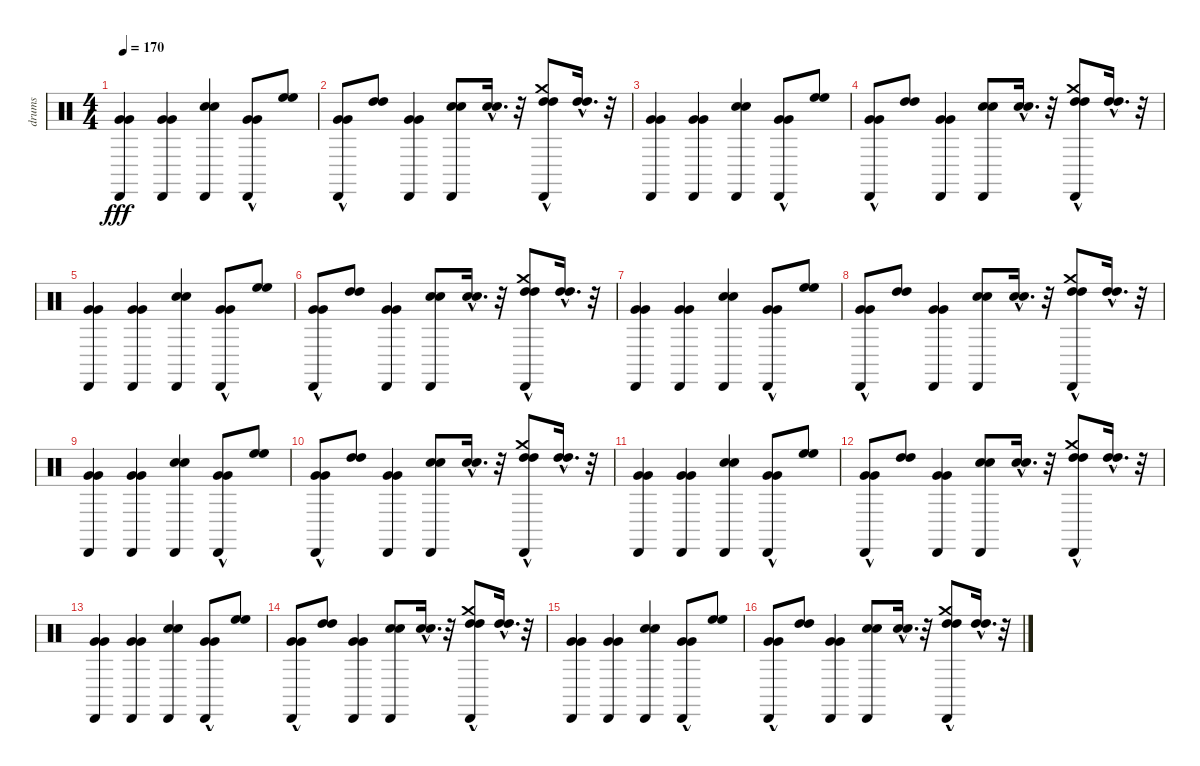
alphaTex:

\track ("drums" "drums") {instrument percussion}
\staff {score}
\articulation defaults
\ts (4 4)
\tempo 170
\clef neutral
\ks c
("Very Low Tom (hit)" "Very Low Tom (hit)" "Cabasa (hit)").4{dy fff} ("Very Low Tom (hit)" "Very Low Tom (hit)" "Cabasa (hit)").4 ("Electric Snare (hit)" "Electric Snare (hit)" "Cabasa (hit)").4 ("Very Low Tom (hit)"{hac} "Very Low Tom (hit)"{hac} "Cabasa (hit)").8 ("High Floor Tom (hit)" "High Floor Tom (hit)").8 |
("Very Low Tom (hit)"{hac} "Very Low Tom (hit)"{hac} "Cabasa (hit)").8 ("High Tom (hit)" "High Tom (hit)").8 ("Very Low Tom (hit)" "Very Low Tom (hit)" "Cabasa (hit)").4 ("Electric Snare (hit)" "Electric Snare (hit)" "Cabasa (hit)").8 ("Electric Snare (hit)"{hac} "Electric Snare (hit)"{hac}).16{d} r.32 ("High Tom (hit)"{hac} "High Tom (hit)"{hac} "Crash medium (hit)" "Cabasa (hit)").8 ("High Tom (hit)"{hac} "High Tom (hit)"{hac}).16{d} r.32 |
("Very Low Tom (hit)" "Very Low Tom (hit)" "Cabasa (hit)").4 ("Very Low Tom (hit)" "Very Low Tom (hit)" "Cabasa (hit)").4 ("Electric Snare (hit)" "Electric Snare (hit)" "Cabasa (hit)").4 ("Very Low Tom (hit)"{hac} "Very Low Tom (hit)"{hac} "Cabasa (hit)").8 ("High Floor Tom (hit)" "High Floor Tom (hit)").8 |
("Very Low Tom (hit)"{hac} "Very Low Tom (hit)"{hac} "Cabasa (hit)").8 ("High Tom (hit)" "High Tom (hit)").8 ("Very Low Tom (hit)" "Very Low Tom (hit)" "Cabasa (hit)").4 ("Electric Snare (hit)" "Electric Snare (hit)" "Cabasa (hit)").8 ("Electric Snare (hit)"{hac} "Electric Snare (hit)"{hac}).16{d} r.32 ("High Tom (hit)"{hac} "High Tom (hit)"{hac} "Crash medium (hit)" "Cabasa (hit)").8 ("High Tom (hit)"{hac} "High Tom (hit)"{hac}).16{d} r.32 |
("Very Low Tom (hit)" "Very Low Tom (hit)" "Cabasa (hit)").4 ("Very Low Tom (hit)" "Very Low Tom (hit)" "Cabasa (hit)").4 ("Electric Snare (hit)" "Electric Snare (hit)" "Cabasa (hit)").4 ("Very Low Tom (hit)"{hac} "Very Low Tom (hit)"{hac} "Cabasa (hit)").8 ("High Floor Tom (hit)" "High Floor Tom (hit)").8 |
("Very Low Tom (hit)"{hac} "Very Low Tom (hit)"{hac} "Cabasa (hit)").8 ("High Tom (hit)" "High Tom (hit)").8 ("Very Low Tom (hit)" "Very Low Tom (hit)" "Cabasa (hit)").4 ("Electric Snare (hit)" "Electric Snare (hit)" "Cabasa (hit)").8 ("Electric Snare (hit)"{hac} "Electric Snare (hit)"{hac}).16{d} r.32 ("High Tom (hit)"{hac} "High Tom (hit)"{hac} "Crash medium (hit)" "Cabasa (hit)").8 ("High Tom (hit)"{hac} "High Tom (hit)"{hac}).16{d} r.32 |
("Very Low Tom (hit)" "Very Low Tom (hit)" "Cabasa (hit)").4 ("Very Low Tom (hit)" "Very Low Tom (hit)" "Cabasa (hit)").4 ("Electric Snare (hit)" "Electric Snare (hit)" "Cabasa (hit)").4 ("Very Low Tom (hit)"{hac} "Very Low Tom (hit)"{hac} "Cabasa (hit)").8 ("High Floor Tom (hit)" "High Floor Tom (hit)").8 |
("Very Low Tom (hit)"{hac} "Very Low Tom (hit)"{hac} "Cabasa (hit)").8 ("High Tom (hit)" "High Tom (hit)").8 ("Very Low Tom (hit)" "Very Low Tom (hit)" "Cabasa (hit)").4 ("Electric Snare (hit)" "Electric Snare (hit)" "Cabasa (hit)").8 ("Electric Snare (hit)"{hac} "Electric Snare (hit)"{hac}).16{d} r.32 ("High Tom (hit)"{hac} "High Tom (hit)"{hac} "Crash medium (hit)" "Cabasa (hit)").8 ("High Tom (hit)"{hac} "High Tom (hit)"{hac}).16{d} r.32 |
("Very Low Tom (hit)" "Very Low Tom (hit)" "Cabasa (hit)").4 ("Very Low Tom (hit)" "Very Low Tom (hit)" "Cabasa (hit)").4 ("Electric Snare (hit)" "Electric Snare (hit)" "Cabasa (hit)").4 ("Very Low Tom (hit)"{hac} "Very Low Tom (hit)"{hac} "Cabasa (hit)").8 ("High Floor Tom (hit)" "High Floor Tom (hit)").8 |
("Very Low Tom (hit)"{hac} "Very Low Tom (hit)"{hac} "Cabasa (hit)").8 ("High Tom (hit)" "High Tom (hit)").8 ("Very Low Tom (hit)" "Very Low Tom (hit)" "Cabasa (hit)").4 ("Electric Snare (hit)" "Electric Snare (hit)" "Cabasa (hit)").8 ("Electric Snare (hit)"{hac} "Electric Snare (hit)"{hac}).16{d} r.32 ("High Tom (hit)"{hac} "High Tom (hit)"{hac} "Crash medium (hit)" "Cabasa (hit)").8 ("High Tom (hit)"{hac} "High Tom (hit)"{hac}).16{d} r.32 |
("Very Low Tom (hit)" "Very Low Tom (hit)" "Cabasa (hit)").4 ("Very Low Tom (hit)" "Very Low Tom (hit)" "Cabasa (hit)").4 ("Electric Snare (hit)" "Electric Snare (hit)" "Cabasa (hit)").4 ("Very Low Tom (hit)"{hac} "Very Low Tom (hit)"{hac} "Cabasa (hit)").8 ("High Floor Tom (hit)" "High Floor Tom (hit)").8 |
("Very Low Tom (hit)"{hac} "Very Low Tom (hit)"{hac} "Cabasa (hit)").8 ("High Tom (hit)" "High Tom (hit)").8 ("Very Low Tom (hit)" "Very Low Tom (hit)" "Cabasa (hit)").4 ("Electric Snare (hit)" "Electric Snare (hit)" "Cabasa (hit)").8 ("Electric Snare (hit)"{hac} "Electric Snare (hit)"{hac}).16{d} r.32 ("High Tom (hit)"{hac} "High Tom (hit)"{hac} "Crash medium (hit)" "Cabasa (hit)").8 ("High Tom (hit)"{hac} "High Tom (hit)"{hac}).16{d} r.32 |
("Very Low Tom (hit)" "Very Low Tom (hit)" "Cabasa (hit)").4 ("Very Low Tom (hit)" "Very Low Tom (hit)" "Cabasa (hit)").4 ("Electric Snare (hit)" "Electric Snare (hit)" "Cabasa (hit)").4 ("Very Low Tom (hit)"{hac} "Very Low Tom (hit)"{hac} "Cabasa (hit)").8 ("High Floor Tom (hit)" "High Floor Tom (hit)").8 |
("Very Low Tom (hit)"{hac} "Very Low Tom (hit)"{hac} "Cabasa (hit)").8 ("High Tom (hit)" "High Tom (hit)").8 ("Very Low Tom (hit)" "Very Low Tom (hit)" "Cabasa (hit)").4 ("Electric Snare (hit)" "Electric Snare (hit)" "Cabasa (hit)").8 ("Electric Snare (hit)"{hac} "Electric Snare (hit)"{hac}).16{d} r.32 ("High Tom (hit)"{hac} "High Tom (hit)"{hac} "Crash medium (hit)" "Cabasa (hit)").8 ("High Tom (hit)"{hac} "High Tom (hit)"{hac}).16{d} r.32 |
("Very Low Tom (hit)" "Very Low Tom (hit)" "Cabasa (hit)").4 ("Very Low Tom (hit)" "Very Low Tom (hit)" "Cabasa (hit)").4 ("Electric Snare (hit)" "Electric Snare (hit)" "Cabasa (hit)").4 ("Very Low Tom (hit)"{hac} "Very Low Tom (hit)"{hac} "Cabasa (hit)").8 ("High Floor Tom (hit)" "High Floor Tom (hit)").8 |
("Very Low Tom (hit)"{hac} "Very Low Tom (hit)"{hac} "Cabasa (hit)").8 ("High Tom (hit)" "High Tom (hit)").8 ("Very Low Tom (hit)" "Very Low Tom (hit)" "Cabasa (hit)").4 ("Electric Snare (hit)" "Electric Snare (hit)" "Cabasa (hit)").8 ("Electric Snare (hit)"{hac} "Electric Snare (hit)"{hac}).16{d} r.32 ("High Tom (hit)"{hac} "High Tom (hit)"{hac} "Crash medium (hit)" "Cabasa (hit)").8 ("High Tom (hit)"{hac} "High Tom (hit)"{hac}).16{d} r.32
